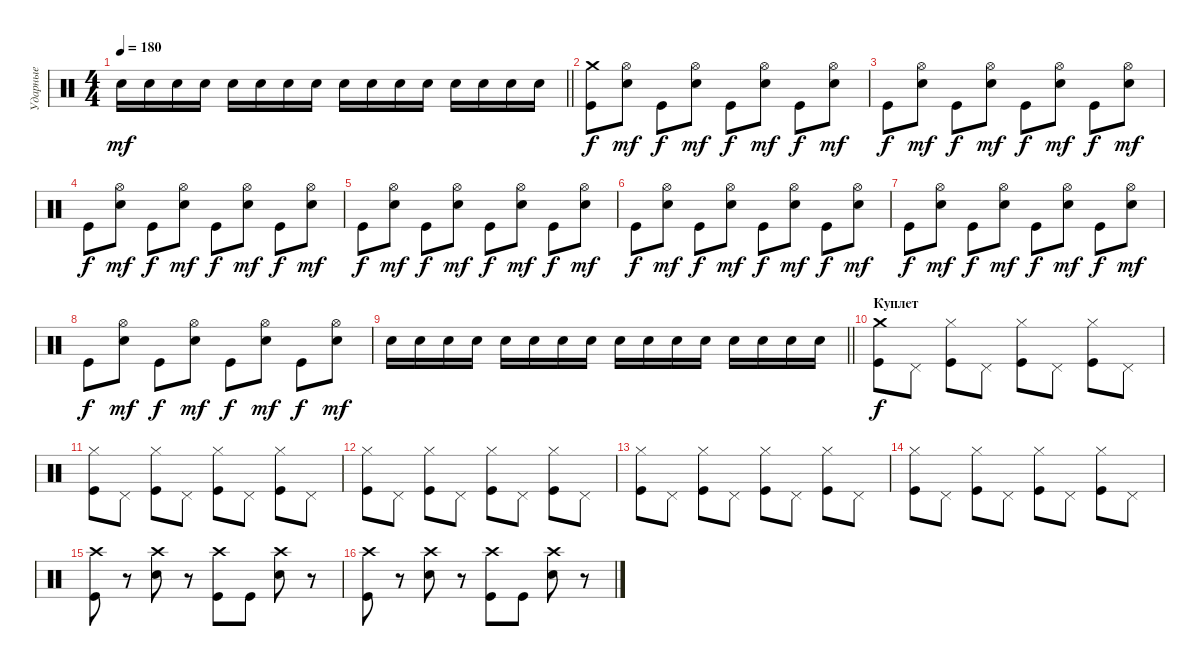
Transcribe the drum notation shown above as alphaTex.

\track ("Ударные" "Ударные") {instrument percussion}
\staff {score}
\articulation defaults
\ts (4 4)
\tempo 180
\clef neutral
\barLineRight lightlight
\ks c "Electric Snare (hit)".16{dy mf} "Electric Snare (hit)".16 "Electric Snare (hit)".16 "Electric Snare (hit)".16 "Electric Snare (hit)".16 "Electric Snare (hit)".16 "Electric Snare (hit)".16 "Electric Snare (hit)".16 "Electric Snare (hit)".16 "Electric Snare (hit)".16 "Electric Snare (hit)".16 "Electric Snare (hit)".16 "Electric Snare (hit)".16 "Electric Snare (hit)".16 "Electric Snare (hit)".16 "Electric Snare (hit)".16
|
("Kick (hit)" "Crash medium (hit)").8{dy f} ("Electric Snare (hit)" "Hi-Hat (open)").8{dy mf} "Kick (hit)".8{dy f} ("Electric Snare (hit)" "Hi-Hat (open)").8{dy mf} "Kick (hit)".8{dy f} ("Electric Snare (hit)" "Hi-Hat (open)").8{dy mf} "Kick (hit)".8{dy f} ("Electric Snare (hit)" "Hi-Hat (open)").8{dy mf} |
"Kick (hit)".8{dy f} ("Electric Snare (hit)" "Hi-Hat (open)").8{dy mf} "Kick (hit)".8{dy f} ("Electric Snare (hit)" "Hi-Hat (open)").8{dy mf} "Kick (hit)".8{dy f} ("Electric Snare (hit)" "Hi-Hat (open)").8{dy mf} "Kick (hit)".8{dy f} ("Electric Snare (hit)" "Hi-Hat (open)").8{dy mf} |
"Kick (hit)".8{dy f} ("Electric Snare (hit)" "Hi-Hat (open)").8{dy mf} "Kick (hit)".8{dy f} ("Electric Snare (hit)" "Hi-Hat (open)").8{dy mf} "Kick (hit)".8{dy f} ("Electric Snare (hit)" "Hi-Hat (open)").8{dy mf} "Kick (hit)".8{dy f} ("Electric Snare (hit)" "Hi-Hat (open)").8{dy mf} |
"Kick (hit)".8{dy f} ("Electric Snare (hit)" "Hi-Hat (open)").8{dy mf} "Kick (hit)".8{dy f} ("Electric Snare (hit)" "Hi-Hat (open)").8{dy mf} "Kick (hit)".8{dy f} ("Electric Snare (hit)" "Hi-Hat (open)").8{dy mf} "Kick (hit)".8{dy f} ("Electric Snare (hit)" "Hi-Hat (open)").8{dy mf} |
"Kick (hit)".8{dy f} ("Electric Snare (hit)" "Hi-Hat (open)").8{dy mf} "Kick (hit)".8{dy f} ("Electric Snare (hit)" "Hi-Hat (open)").8{dy mf} "Kick (hit)".8{dy f} ("Electric Snare (hit)" "Hi-Hat (open)").8{dy mf} "Kick (hit)".8{dy f} ("Electric Snare (hit)" "Hi-Hat (open)").8{dy mf} |
"Kick (hit)".8{dy f} ("Electric Snare (hit)" "Hi-Hat (open)").8{dy mf} "Kick (hit)".8{dy f} ("Electric Snare (hit)" "Hi-Hat (open)").8{dy mf} "Kick (hit)".8{dy f} ("Electric Snare (hit)" "Hi-Hat (open)").8{dy mf} "Kick (hit)".8{dy f} ("Electric Snare (hit)" "Hi-Hat (open)").8{dy mf} |
"Kick (hit)".8{dy f} ("Electric Snare (hit)" "Hi-Hat (open)").8{dy mf} "Kick (hit)".8{dy f} ("Electric Snare (hit)" "Hi-Hat (open)").8{dy mf} "Kick (hit)".8{dy f} ("Electric Snare (hit)" "Hi-Hat (open)").8{dy mf} "Kick (hit)".8{dy f} ("Electric Snare (hit)" "Hi-Hat (open)").8{dy mf} |
\barLineRight lightlight "Electric Snare (hit)".16 "Electric Snare (hit)".16 "Electric Snare (hit)".16 "Electric Snare (hit)".16 "Electric Snare (hit)".16 "Electric Snare (hit)".16 "Electric Snare (hit)".16 "Electric Snare (hit)".16 "Electric Snare (hit)".16 "Electric Snare (hit)".16 "Electric Snare (hit)".16 "Electric Snare (hit)".16 "Electric Snare (hit)".16 "Electric Snare (hit)".16 "Electric Snare (hit)".16 "Electric Snare (hit)".16
|
\section ("" "Куплет")
("Crash medium (hit)" "Kick (hit)").8{dy f} "Pedal Hi-Hat (hit)".8 ("Hi-Hat (closed)" "Kick (hit)").8 "Pedal Hi-Hat (hit)".8 ("Hi-Hat (closed)" "Kick (hit)").8 "Pedal Hi-Hat (hit)".8 ("Hi-Hat (closed)" "Kick (hit)").8 "Pedal Hi-Hat (hit)".8 |
("Hi-Hat (closed)" "Kick (hit)").8 "Pedal Hi-Hat (hit)".8 ("Hi-Hat (closed)" "Kick (hit)").8 "Pedal Hi-Hat (hit)".8 ("Hi-Hat (closed)" "Kick (hit)").8 "Pedal Hi-Hat (hit)".8 ("Hi-Hat (closed)" "Kick (hit)").8 "Pedal Hi-Hat (hit)".8 |
("Hi-Hat (closed)" "Kick (hit)").8 "Pedal Hi-Hat (hit)".8 ("Hi-Hat (closed)" "Kick (hit)").8 "Pedal Hi-Hat (hit)".8 ("Hi-Hat (closed)" "Kick (hit)").8 "Pedal Hi-Hat (hit)".8 ("Hi-Hat (closed)" "Kick (hit)").8 "Pedal Hi-Hat (hit)".8 |
("Hi-Hat (closed)" "Kick (hit)").8 "Pedal Hi-Hat (hit)".8 ("Hi-Hat (closed)" "Kick (hit)").8 "Pedal Hi-Hat (hit)".8 ("Hi-Hat (closed)" "Kick (hit)").8 "Pedal Hi-Hat (hit)".8 ("Hi-Hat (closed)" "Kick (hit)").8 "Pedal Hi-Hat (hit)".8 |
("Hi-Hat (closed)" "Kick (hit)").8 "Pedal Hi-Hat (hit)".8 ("Hi-Hat (closed)" "Kick (hit)").8 "Pedal Hi-Hat (hit)".8 ("Hi-Hat (closed)" "Kick (hit)").8 "Pedal Hi-Hat (hit)".8 ("Hi-Hat (closed)" "Kick (hit)").8 "Pedal Hi-Hat (hit)".8 |
("Crash high (hit)" "Kick (hit)").8 r.8 ("Crash high (hit)" "Electric Snare (hit)").8 r.8 ("Crash high (hit)" "Kick (hit)").8 "Kick (hit)".8 ("Crash high (hit)" "Electric Snare (hit)").8 r.8 |
("Crash high (hit)" "Kick (hit)").8 r.8 ("Crash high (hit)" "Electric Snare (hit)").8 r.8 ("Crash high (hit)" "Kick (hit)").8 "Kick (hit)".8 ("Crash high (hit)" "Electric Snare (hit)").8 r.8
